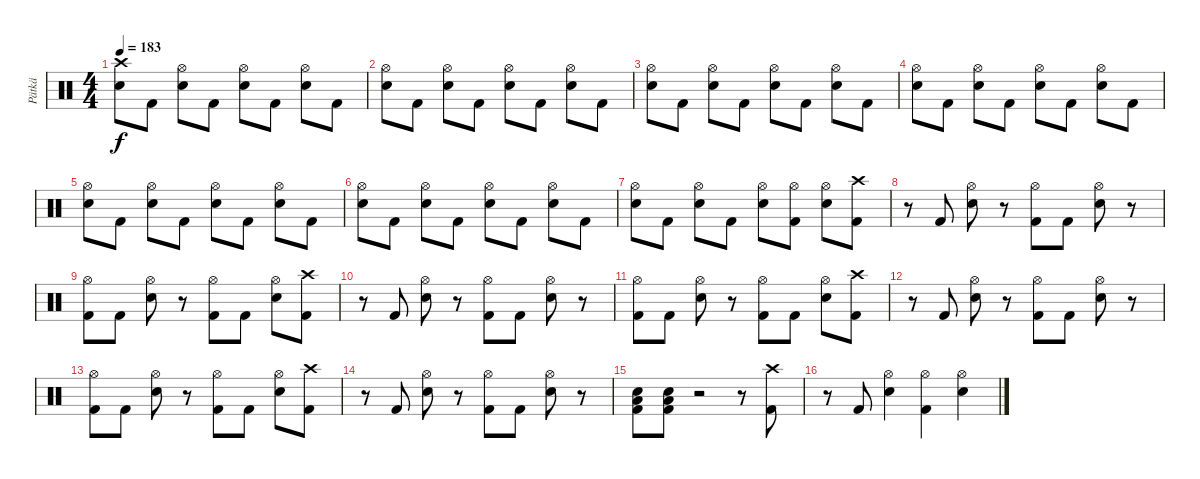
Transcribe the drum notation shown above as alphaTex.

\track ("Pätkä" "Pätkä") {instrument percussion}
\staff {score}
\articulation defaults
\ts (4 4)
\tempo 183
\clef neutral
\ks c
("Crash high (hit)" "Electric Snare (hit)").8{dy f} "Kick (hit) 2".8 ("Hi-Hat (open)" "Electric Snare (hit)").8 "Kick (hit) 2".8 ("Hi-Hat (open)" "Electric Snare (hit)").8 "Kick (hit) 2".8 ("Hi-Hat (open)" "Electric Snare (hit)").8 "Kick (hit) 2".8 |
("Hi-Hat (open)" "Electric Snare (hit)").8 "Kick (hit) 2".8 ("Hi-Hat (open)" "Electric Snare (hit)").8 "Kick (hit) 2".8 ("Hi-Hat (open)" "Electric Snare (hit)").8 "Kick (hit) 2".8 ("Hi-Hat (open)" "Electric Snare (hit)").8 "Kick (hit) 2".8 |
("Hi-Hat (open)" "Electric Snare (hit)").8 "Kick (hit) 2".8 ("Hi-Hat (open)" "Electric Snare (hit)").8 "Kick (hit) 2".8 ("Hi-Hat (open)" "Electric Snare (hit)").8 "Kick (hit) 2".8 ("Hi-Hat (open)" "Electric Snare (hit)").8 "Kick (hit) 2".8 |
("Hi-Hat (open)" "Electric Snare (hit)").8 "Kick (hit) 2".8 ("Hi-Hat (open)" "Electric Snare (hit)").8 "Kick (hit) 2".8 ("Hi-Hat (open)" "Electric Snare (hit)").8 "Kick (hit) 2".8 ("Hi-Hat (open)" "Electric Snare (hit)").8 "Kick (hit) 2".8 |
("Hi-Hat (open)" "Electric Snare (hit)").8 "Kick (hit) 2".8 ("Hi-Hat (open)" "Electric Snare (hit)").8 "Kick (hit) 2".8 ("Hi-Hat (open)" "Electric Snare (hit)").8 "Kick (hit) 2".8 ("Hi-Hat (open)" "Electric Snare (hit)").8 "Kick (hit) 2".8 |
("Hi-Hat (open)" "Electric Snare (hit)").8 "Kick (hit) 2".8 ("Hi-Hat (open)" "Electric Snare (hit)").8 "Kick (hit) 2".8 ("Hi-Hat (open)" "Electric Snare (hit)").8 "Kick (hit) 2".8 ("Hi-Hat (open)" "Electric Snare (hit)").8 "Kick (hit) 2".8 |
("Hi-Hat (open)" "Electric Snare (hit)").8 "Kick (hit) 2".8 ("Hi-Hat (open)" "Electric Snare (hit)").8 "Kick (hit) 2".8 ("Hi-Hat (open)" "Electric Snare (hit)").8 ("Hi-Hat (open)" "Kick (hit) 2").8 ("Hi-Hat (open)" "Electric Snare (hit)").8 ("Crash high (hit)" "Kick (hit) 2").8 |
r.8 "Kick (hit) 2".8 ("Hi-Hat (open)" "Electric Snare (hit)").8 r.8 ("Hi-Hat (open)" "Kick (hit) 2").8 "Kick (hit) 2".8 ("Hi-Hat (open)" "Electric Snare (hit)").8 r.8 |
("Hi-Hat (open)" "Kick (hit) 2").8 "Kick (hit) 2".8 ("Hi-Hat (open)" "Electric Snare (hit)").8 r.8 ("Hi-Hat (open)" "Kick (hit) 2").8 "Kick (hit) 2".8 ("Hi-Hat (open)" "Electric Snare (hit)").8 ("Crash high (hit)" "Kick (hit) 2").8 |
r.8 "Kick (hit) 2".8 ("Hi-Hat (open)" "Electric Snare (hit)").8 r.8 ("Hi-Hat (open)" "Kick (hit) 2").8 "Kick (hit) 2".8 ("Hi-Hat (open)" "Electric Snare (hit)").8 r.8 |
("Hi-Hat (open)" "Kick (hit) 2").8 "Kick (hit) 2".8 ("Hi-Hat (open)" "Electric Snare (hit)").8 r.8 ("Hi-Hat (open)" "Kick (hit) 2").8 "Kick (hit) 2".8 ("Hi-Hat (open)" "Electric Snare (hit)").8 ("Crash high (hit)" "Kick (hit) 2").8 |
r.8 "Kick (hit) 2".8 ("Hi-Hat (open)" "Electric Snare (hit)").8 r.8 ("Hi-Hat (open)" "Kick (hit) 2").8 "Kick (hit) 2".8 ("Hi-Hat (open)" "Electric Snare (hit)").8 r.8 |
("Hi-Hat (open)" "Kick (hit) 2").8 "Kick (hit) 2".8 ("Hi-Hat (open)" "Electric Snare (hit)").8 r.8 ("Hi-Hat (open)" "Kick (hit) 2").8 "Kick (hit) 2".8 ("Hi-Hat (open)" "Electric Snare (hit)").8 ("Crash high (hit)" "Kick (hit) 2").8 |
r.8 "Kick (hit) 2".8 ("Hi-Hat (open)" "Electric Snare (hit)").8 r.8 ("Hi-Hat (open)" "Kick (hit) 2").8 "Kick (hit) 2".8 ("Hi-Hat (open)" "Electric Snare (hit)").8 r.8 |
("Low Floor Tom (hit)" "Electric Snare (hit)" "Kick (hit) 2").8 ("Low Floor Tom (hit)" "Electric Snare (hit)" "Kick (hit) 2").8 r.2 r.8 ("Crash high (hit)" "Kick (hit) 2").8 |
r.8 "Kick (hit) 2".8 ("Hi-Hat (open)" "Electric Snare (hit)").4 ("Hi-Hat (open)" "Kick (hit) 2").4 ("Hi-Hat (open)" "Electric Snare (hit)").4
